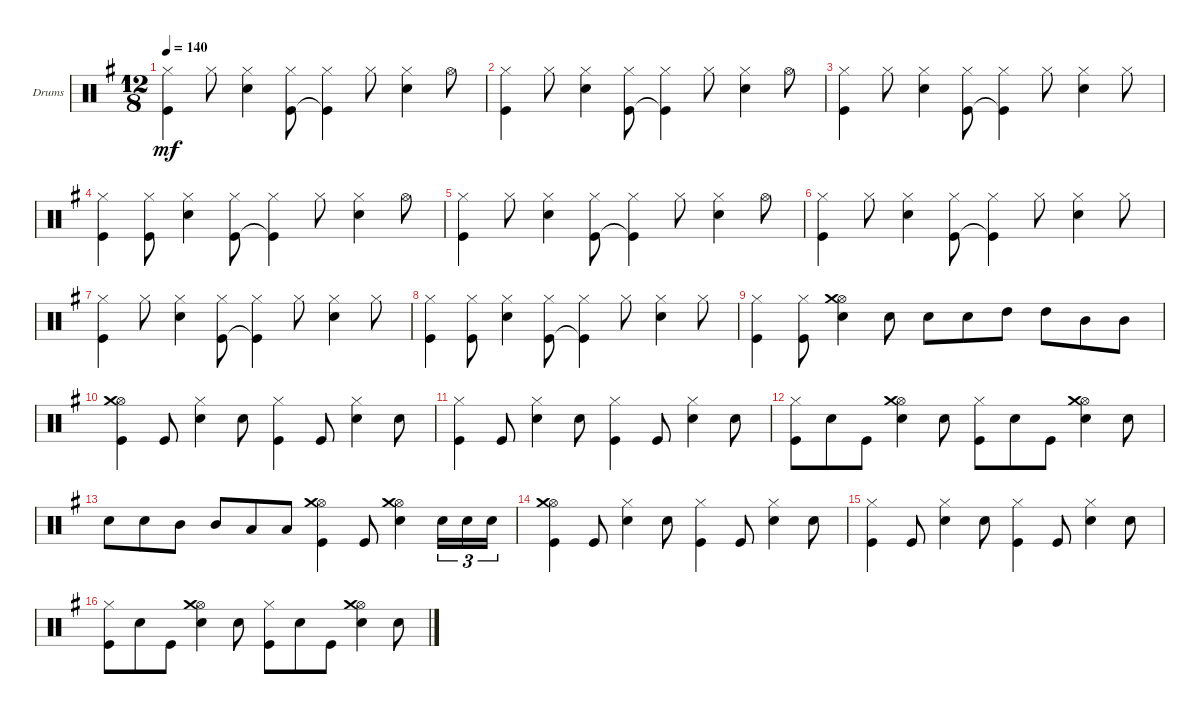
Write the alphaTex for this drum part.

\defaultSystemsLayout 4
\bracketExtendMode groupsimilarinstruments
\firstSystemTrackNameOrientation horizontal
\otherSystemsTrackNameOrientation horizontal
\track ("Drumkit" "Drums") {instrument percussion}
\staff {score}
\articulation defaults
\ts (12 8)
\tempo 140
\clef neutral
\ks g
("Hi-Hat (closed)" "Kick (hit)").4{dy mf} "Hi-Hat (closed)".8 ("Hi-Hat (closed)" "Snare (hit) 2").4 ("Hi-Hat (closed)" "Kick (hit)").8 ("Hi-Hat (closed)" "Kick (hit)"{t}).4 "Hi-Hat (closed)".8 ("Hi-Hat (closed)" "Snare (hit) 2").4 "Hi-Hat (open)".8 |
("Hi-Hat (closed)" "Kick (hit)").4 "Hi-Hat (closed)".8 ("Hi-Hat (closed)" "Snare (hit) 2").4 ("Hi-Hat (closed)" "Kick (hit)").8 ("Hi-Hat (closed)" "Kick (hit)"{t}).4 "Hi-Hat (closed)".8 ("Hi-Hat (closed)" "Snare (hit) 2").4 "Hi-Hat (open)".8 |
("Hi-Hat (closed)" "Kick (hit)").4 "Hi-Hat (closed)".8 ("Hi-Hat (closed)" "Snare (hit) 2").4 ("Hi-Hat (closed)" "Kick (hit)").8 ("Hi-Hat (closed)" "Kick (hit)"{t}).4 "Hi-Hat (closed)".8 ("Hi-Hat (closed)" "Snare (hit) 2").4 "Hi-Hat (closed)".8 |
("Hi-Hat (closed)" "Kick (hit)").4 ("Hi-Hat (closed)" "Kick (hit)").8 ("Hi-Hat (closed)" "Snare (hit) 2").4 ("Hi-Hat (closed)" "Kick (hit)").8 ("Hi-Hat (closed)" "Kick (hit)"{t}).4 "Hi-Hat (closed)".8 ("Hi-Hat (closed)" "Snare (hit) 2").4 "Hi-Hat (open)".8 |
("Hi-Hat (closed)" "Kick (hit)").4 "Hi-Hat (closed)".8 ("Hi-Hat (closed)" "Snare (hit) 2").4 ("Hi-Hat (closed)" "Kick (hit)").8 ("Hi-Hat (closed)" "Kick (hit)"{t}).4 "Hi-Hat (closed)".8 ("Hi-Hat (closed)" "Snare (hit) 2").4 "Hi-Hat (open)".8 |
("Hi-Hat (closed)" "Kick (hit)").4 "Hi-Hat (closed)".8 ("Hi-Hat (closed)" "Snare (hit) 2").4 ("Hi-Hat (closed)" "Kick (hit)").8 ("Hi-Hat (closed)" "Kick (hit)"{t}).4 "Hi-Hat (closed)".8 ("Hi-Hat (closed)" "Snare (hit) 2").4 "Hi-Hat (closed)".8 |
("Hi-Hat (closed)" "Kick (hit)").4 "Hi-Hat (closed)".8 ("Hi-Hat (closed)" "Snare (hit) 2").4 ("Hi-Hat (closed)" "Kick (hit)").8 ("Hi-Hat (closed)" "Kick (hit)"{t}).4 "Hi-Hat (closed)".8 ("Hi-Hat (closed)" "Snare (hit) 2").4 "Hi-Hat (closed)".8 |
("Hi-Hat (closed)" "Kick (hit)").4 ("Hi-Hat (closed)" "Kick (hit)").8 ("Hi-Hat (closed)" "Snare (hit) 2").4 ("Hi-Hat (closed)" "Kick (hit)").8 ("Hi-Hat (closed)" "Kick (hit)"{t}).4 "Hi-Hat (closed)".8 ("Hi-Hat (closed)" "Snare (hit) 2").4 "Hi-Hat (closed)".8 |
("Hi-Hat (closed)" "Kick (hit)").4 ("Hi-Hat (closed)" "Kick (hit)").8 ("Snare (hit) 2" "Hi-Hat (open)" "Crash medium (hit)").4 "Snare (hit) 2".8 "Snare (hit) 2".8 "Snare (hit) 2".8 "High Tom (hit)".8 "High Tom (hit)".8 "Mid Tom (hit)".8 "Mid Tom (hit)".8 |
("Hi-Hat (open)" "Crash medium (hit)" "Kick (hit)").4 "Kick (hit)".8 ("Snare (hit) 2" "Hi-Hat (closed)").4 "Snare (hit) 2".8 ("Hi-Hat (closed)" "Kick (hit)").4 "Kick (hit)".8 ("Snare (hit) 2" "Hi-Hat (closed)").4 "Snare (hit) 2".8 |
("Kick (hit)" "Hi-Hat (closed)").4 "Kick (hit)".8 ("Snare (hit) 2" "Hi-Hat (closed)").4 "Snare (hit) 2".8 ("Hi-Hat (closed)" "Kick (hit)").4 "Kick (hit)".8 ("Snare (hit) 2" "Hi-Hat (closed)").4 "Snare (hit) 2".8 |
("Hi-Hat (closed)" "Kick (hit)").8 "Snare (hit) 2".8 "Kick (hit)".8 ("Snare (hit) 2" "Hi-Hat (open)" "Crash medium (hit)").4 "Snare (hit) 2".8 ("Hi-Hat (closed)" "Kick (hit)").8 "Snare (hit) 2".8 "Kick (hit)".8 ("Snare (hit) 2" "Hi-Hat (open)" "Crash medium (hit)").4 "Snare (hit) 2".8 |
"Snare (hit) 2".8 "Snare (hit) 2".8 "Mid Tom (hit)".8 "Mid Tom (hit)".8 "Low Tom (hit)".8 "Low Tom (hit)".8 ("Hi-Hat (open)" "Crash medium (hit)" "Kick (hit)").4 "Kick (hit)".8 ("Snare (hit) 2" "Hi-Hat (open)" "Crash medium (hit)").4 "Snare (hit) 2".16{tu (3 2)} "Snare (hit) 2".16{tu (3 2)} "Snare (hit) 2".16{tu (3 2)} |
("Hi-Hat (open)" "Crash medium (hit)" "Kick (hit)").4 "Kick (hit)".8 ("Snare (hit) 2" "Hi-Hat (closed)").4 "Snare (hit) 2".8 ("Hi-Hat (closed)" "Kick (hit)").4 "Kick (hit)".8 ("Snare (hit) 2" "Hi-Hat (closed)").4 "Snare (hit) 2".8 |
("Kick (hit)" "Hi-Hat (closed)").4 "Kick (hit)".8 ("Snare (hit) 2" "Hi-Hat (closed)").4 "Snare (hit) 2".8 ("Hi-Hat (closed)" "Kick (hit)").4 "Kick (hit)".8 ("Snare (hit) 2" "Hi-Hat (closed)").4 "Snare (hit) 2".8 |
("Hi-Hat (closed)" "Kick (hit)").8 "Snare (hit) 2".8 "Kick (hit)".8 ("Snare (hit) 2" "Hi-Hat (open)" "Crash medium (hit)").4 "Snare (hit) 2".8 ("Hi-Hat (closed)" "Kick (hit)").8 "Snare (hit) 2".8 "Kick (hit)".8 ("Snare (hit) 2" "Hi-Hat (open)" "Crash medium (hit)").4 "Snare (hit) 2".8
